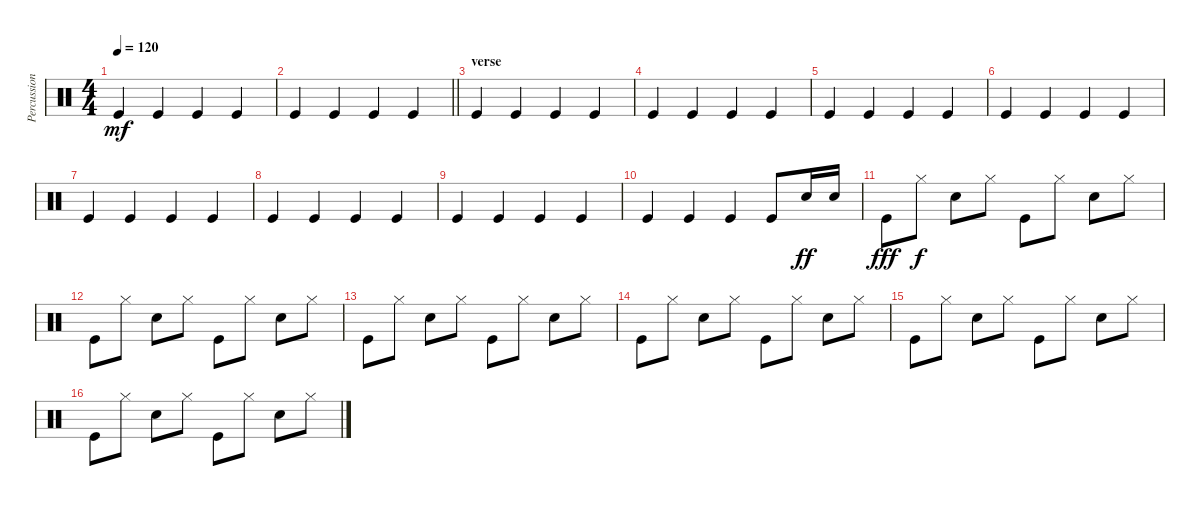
\track ("Percussion" "Percussion") {instrument percussion}
\staff {score}
\articulation defaults
\ts (4 4)
\tempo 120
\clef neutral
\ks c "Kick (hit)".4{dy mf} "Kick (hit)".4 "Kick (hit)".4 "Kick (hit)".4
|
\barLineRight lightlight "Kick (hit)".4 "Kick (hit)".4 "Kick (hit)".4 "Kick (hit)".4
|
\section ("" "verse")
"Kick (hit)".4 "Kick (hit)".4 "Kick (hit)".4 "Kick (hit)".4 |
"Kick (hit)".4 "Kick (hit)".4 "Kick (hit)".4 "Kick (hit)".4 |
"Kick (hit)".4 "Kick (hit)".4 "Kick (hit)".4 "Kick (hit)".4 |
"Kick (hit)".4 "Kick (hit)".4 "Kick (hit)".4 "Kick (hit)".4 |
"Kick (hit)".4 "Kick (hit)".4 "Kick (hit)".4 "Kick (hit)".4 |
"Kick (hit)".4 "Kick (hit)".4 "Kick (hit)".4 "Kick (hit)".4 |
"Kick (hit)".4 "Kick (hit)".4 "Kick (hit)".4 "Kick (hit)".4 |
"Kick (hit)".4 "Kick (hit)".4 "Kick (hit)".4 "Kick (hit)".8 "Snare (hit) 2".16{dy ff} "Snare (hit) 2".16 |
"Kick (hit)".8{dy fff} "Hi-Hat (closed)".8{dy f} "Snare (hit) 2".8 "Hi-Hat (closed)".8 "Kick (hit)".8 "Hi-Hat (closed)".8 "Snare (hit) 2".8 "Hi-Hat (closed)".8 |
"Kick (hit)".8 "Hi-Hat (closed)".8 "Snare (hit) 2".8 "Hi-Hat (closed)".8 "Kick (hit)".8 "Hi-Hat (closed)".8 "Snare (hit) 2".8 "Hi-Hat (closed)".8 |
"Kick (hit)".8 "Hi-Hat (closed)".8 "Snare (hit) 2".8 "Hi-Hat (closed)".8 "Kick (hit)".8 "Hi-Hat (closed)".8 "Snare (hit) 2".8 "Hi-Hat (closed)".8 |
"Kick (hit)".8 "Hi-Hat (closed)".8 "Snare (hit) 2".8 "Hi-Hat (closed)".8 "Kick (hit)".8 "Hi-Hat (closed)".8 "Snare (hit) 2".8 "Hi-Hat (closed)".8 |
"Kick (hit)".8 "Hi-Hat (closed)".8 "Snare (hit) 2".8 "Hi-Hat (closed)".8 "Kick (hit)".8 "Hi-Hat (closed)".8 "Snare (hit) 2".8 "Hi-Hat (closed)".8 |
"Kick (hit)".8 "Hi-Hat (closed)".8 "Snare (hit) 2".8 "Hi-Hat (closed)".8 "Kick (hit)".8 "Hi-Hat (closed)".8 "Snare (hit) 2".8 "Hi-Hat (closed)".8
